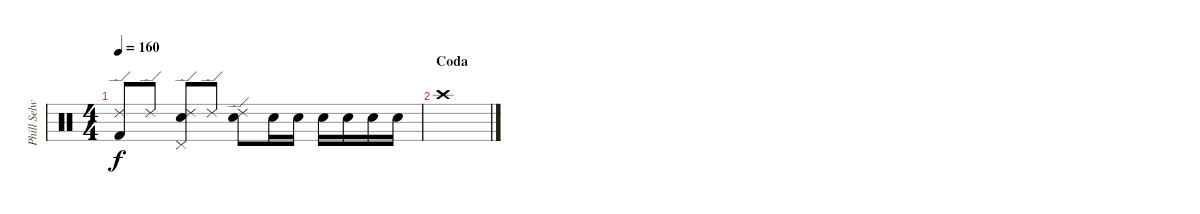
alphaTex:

\track ("Phill Selway" "Phill Selw") {instrument percussion}
\staff {score}
\articulation defaults
\ts (4 4)
\tempo 160
\clef neutral
\ks c
("Kick (hit) 2" "Ride (edge) 2").8{dy f} "Ride (edge) 2".8 ("Snare (hit) 2" "Pedal Hi-Hat (hit)" "Ride (edge) 2").8 "Ride (edge) 2".8 ("Snare (hit) 2" "Ride (edge) 2").8 "Snare (hit) 2".16 "Snare (hit) 2".16 "Snare (hit) 2".16 "Snare (hit) 2".16 "Snare (hit) 2".16 "Snare (hit) 2".16 |
\section ("" "Coda")
"Crash high (hit)".1
